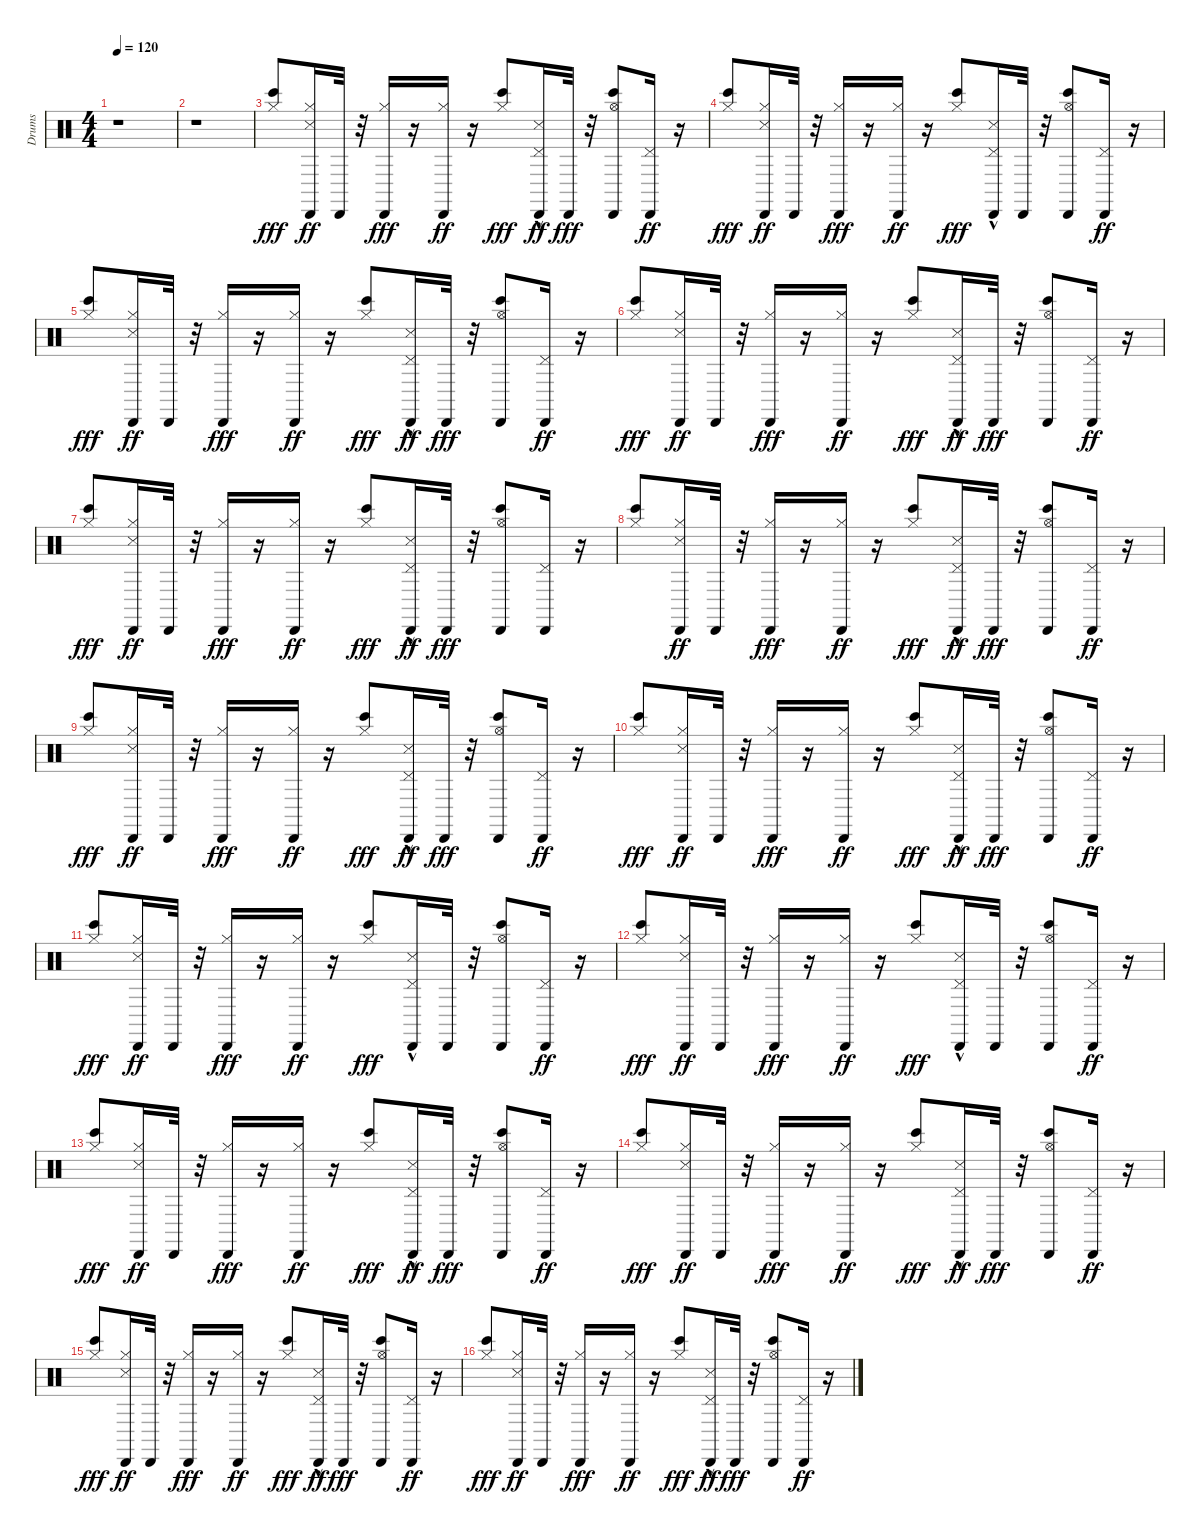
\track ("Drums" "Drums") {instrument percussion}
\staff {score}
\articulation defaults
\ts (4 4)
\tempo 120
\clef neutral
\ks c
r.1{dy fff} |
r.1 |
("Hi-Hat (closed)" "Bongo High (hit)").8 ("Snare (side stick) 3" "Cabasa (hit)" "Hi-Hat (closed)").16{dy ff} "Cabasa (hit)".32 r.32 ("Cabasa (hit)" "Hi-Hat (closed)").16{dy fff} r.16 ("Cabasa (hit)" "Hi-Hat (closed)").16{dy ff} r.16 ("Hi-Hat (closed)" "Bongo High (hit)").8{dy fff} ("Snare (side stick) 3"{hac} "Cabasa (hit)" "Pedal Hi-Hat (hit)").16{dy ff} "Cabasa (hit)".32{dy fff} r.32 ("Cabasa (hit)" "Hi-Hat (open)" "Bongo High (hit)").8 ("Cabasa (hit)" "Pedal Hi-Hat (hit)").16{dy ff} r.16 |
("Hi-Hat (closed)" "Bongo High (hit)").8{dy fff} ("Snare (side stick) 3" "Cabasa (hit)" "Hi-Hat (closed)").16{dy ff} "Cabasa (hit)".32 r.32 ("Cabasa (hit)" "Hi-Hat (closed)").16{dy fff} r.16 ("Cabasa (hit)" "Hi-Hat (closed)").16{dy ff} r.16 ("Hi-Hat (closed)" "Bongo High (hit)").8{dy fff} ("Pedal Hi-Hat (hit)" "Snare (side stick) 3"{hac} "Cabasa (hit)").16 "Cabasa (hit)".32 r.32 ("Cabasa (hit)" "Hi-Hat (open)" "Bongo High (hit)").8 ("Cabasa (hit)" "Pedal Hi-Hat (hit)").16{dy ff} r.16 |
("Hi-Hat (closed)" "Bongo High (hit)").8{dy fff} ("Snare (side stick) 3" "Cabasa (hit)" "Hi-Hat (closed)").16{dy ff} "Cabasa (hit)".32 r.32 ("Cabasa (hit)" "Hi-Hat (closed)").16{dy fff} r.16 ("Cabasa (hit)" "Hi-Hat (closed)").16{dy ff} r.16 ("Hi-Hat (closed)" "Bongo High (hit)").8{dy fff} ("Snare (side stick) 3"{hac} "Cabasa (hit)" "Pedal Hi-Hat (hit)").16{dy ff} "Cabasa (hit)".32{dy fff} r.32 ("Cabasa (hit)" "Hi-Hat (open)" "Bongo High (hit)").8 ("Cabasa (hit)" "Pedal Hi-Hat (hit)").16{dy ff} r.16 |
("Hi-Hat (closed)" "Bongo High (hit)").8{dy fff} ("Snare (side stick) 3" "Cabasa (hit)" "Hi-Hat (closed)").16{dy ff} "Cabasa (hit)".32 r.32 ("Cabasa (hit)" "Hi-Hat (closed)").16{dy fff} r.16 ("Cabasa (hit)" "Hi-Hat (closed)").16{dy ff} r.16 ("Hi-Hat (closed)" "Bongo High (hit)").8{dy fff} ("Snare (side stick) 3"{hac} "Cabasa (hit)" "Pedal Hi-Hat (hit)").16{dy ff} "Cabasa (hit)".32{dy fff} r.32 ("Cabasa (hit)" "Hi-Hat (open)" "Bongo High (hit)").8 ("Cabasa (hit)" "Pedal Hi-Hat (hit)").16{dy ff} r.16 |
("Hi-Hat (closed)" "Bongo High (hit)").8{dy fff} ("Snare (side stick) 3" "Cabasa (hit)" "Hi-Hat (closed)").16{dy ff} "Cabasa (hit)".32 r.32 ("Cabasa (hit)" "Hi-Hat (closed)").16{dy fff} r.16 ("Cabasa (hit)" "Hi-Hat (closed)").16{dy ff} r.16 ("Hi-Hat (closed)" "Bongo High (hit)").8{dy fff} ("Snare (side stick) 3"{hac} "Cabasa (hit)" "Pedal Hi-Hat (hit)").16{dy ff} "Cabasa (hit)".32{dy fff} r.32 ("Cabasa (hit)" "Hi-Hat (open)" "Bongo High (hit)").8 ("Pedal Hi-Hat (hit)" "Cabasa (hit)").16 r.16 |
("Hi-Hat (closed)" "Bongo High (hit)").8 ("Snare (side stick) 3" "Cabasa (hit)" "Hi-Hat (closed)").16{dy ff} "Cabasa (hit)".32 r.32 ("Cabasa (hit)" "Hi-Hat (closed)").16{dy fff} r.16 ("Cabasa (hit)" "Hi-Hat (closed)").16{dy ff} r.16 ("Hi-Hat (closed)" "Bongo High (hit)").8{dy fff} ("Snare (side stick) 3"{hac} "Cabasa (hit)" "Pedal Hi-Hat (hit)").16{dy ff} "Cabasa (hit)".32{dy fff} r.32 ("Cabasa (hit)" "Hi-Hat (open)" "Bongo High (hit)").8 ("Cabasa (hit)" "Pedal Hi-Hat (hit)").16{dy ff} r.16 |
("Hi-Hat (closed)" "Bongo High (hit)").8{dy fff} ("Snare (side stick) 3" "Cabasa (hit)" "Hi-Hat (closed)").16{dy ff} "Cabasa (hit)".32 r.32 ("Hi-Hat (closed)" "Cabasa (hit)").16{dy fff} r.16 ("Cabasa (hit)" "Hi-Hat (closed)").16{dy ff} r.16 ("Hi-Hat (closed)" "Bongo High (hit)").8{dy fff} ("Snare (side stick) 3"{hac} "Cabasa (hit)" "Pedal Hi-Hat (hit)").16{dy ff} "Cabasa (hit)".32{dy fff} r.32 ("Cabasa (hit)" "Hi-Hat (open)" "Bongo High (hit)").8 ("Cabasa (hit)" "Pedal Hi-Hat (hit)").16{dy ff} r.16 |
("Hi-Hat (closed)" "Bongo High (hit)").8{dy fff} ("Snare (side stick) 3" "Cabasa (hit)" "Hi-Hat (closed)").16{dy ff} "Cabasa (hit)".32 r.32 ("Cabasa (hit)" "Hi-Hat (closed)").16{dy fff} r.16 ("Cabasa (hit)" "Hi-Hat (closed)").16{dy ff} r.16 ("Hi-Hat (closed)" "Bongo High (hit)").8{dy fff} ("Snare (side stick) 3"{hac} "Cabasa (hit)" "Pedal Hi-Hat (hit)").16{dy ff} "Cabasa (hit)".32{dy fff} r.32 ("Cabasa (hit)" "Hi-Hat (open)" "Bongo High (hit)").8 ("Cabasa (hit)" "Pedal Hi-Hat (hit)").16{dy ff} r.16 |
("Hi-Hat (closed)" "Bongo High (hit)").8{dy fff} ("Snare (side stick) 3" "Cabasa (hit)" "Hi-Hat (closed)").16{dy ff} "Cabasa (hit)".32 r.32 ("Cabasa (hit)" "Hi-Hat (closed)").16{dy fff} r.16 ("Cabasa (hit)" "Hi-Hat (closed)").16{dy ff} r.16 ("Hi-Hat (closed)" "Bongo High (hit)").8{dy fff} ("Pedal Hi-Hat (hit)" "Snare (side stick) 3"{hac} "Cabasa (hit)").16 "Cabasa (hit)".32 r.32 ("Cabasa (hit)" "Hi-Hat (open)" "Bongo High (hit)").8 ("Cabasa (hit)" "Pedal Hi-Hat (hit)").16{dy ff} r.16 |
("Hi-Hat (closed)" "Bongo High (hit)").8{dy fff} ("Snare (side stick) 3" "Cabasa (hit)" "Hi-Hat (closed)").16{dy ff} "Cabasa (hit)".32 r.32 ("Cabasa (hit)" "Hi-Hat (closed)").16{dy fff} r.16 ("Cabasa (hit)" "Hi-Hat (closed)").16{dy ff} r.16 ("Hi-Hat (closed)" "Bongo High (hit)").8{dy fff} ("Cabasa (hit)" "Pedal Hi-Hat (hit)" "Snare (side stick) 3"{hac}).16 "Cabasa (hit)".32 r.32 ("Cabasa (hit)" "Hi-Hat (open)" "Bongo High (hit)").8 ("Cabasa (hit)" "Pedal Hi-Hat (hit)").16{dy ff} r.16 |
("Hi-Hat (closed)" "Bongo High (hit)").8{dy fff} ("Snare (side stick) 3" "Cabasa (hit)" "Hi-Hat (closed)").16{dy ff} "Cabasa (hit)".32 r.32 ("Cabasa (hit)" "Hi-Hat (closed)").16{dy fff} r.16 ("Cabasa (hit)" "Hi-Hat (closed)").16{dy ff} r.16 ("Hi-Hat (closed)" "Bongo High (hit)").8{dy fff} ("Snare (side stick) 3"{hac} "Cabasa (hit)" "Pedal Hi-Hat (hit)").16{dy ff} "Cabasa (hit)".32{dy fff} r.32 ("Cabasa (hit)" "Hi-Hat (open)" "Bongo High (hit)").8 ("Cabasa (hit)" "Pedal Hi-Hat (hit)").16{dy ff} r.16 |
("Hi-Hat (closed)" "Bongo High (hit)").8{dy fff} ("Snare (side stick) 3" "Cabasa (hit)" "Hi-Hat (closed)").16{dy ff} "Cabasa (hit)".32 r.32 ("Cabasa (hit)" "Hi-Hat (closed)").16{dy fff} r.16 ("Cabasa (hit)" "Hi-Hat (closed)").16{dy ff} r.16 ("Hi-Hat (closed)" "Bongo High (hit)").8{dy fff} ("Snare (side stick) 3"{hac} "Cabasa (hit)" "Pedal Hi-Hat (hit)").16{dy ff} "Cabasa (hit)".32{dy fff} r.32 ("Cabasa (hit)" "Hi-Hat (open)" "Bongo High (hit)").8 ("Cabasa (hit)" "Pedal Hi-Hat (hit)").16{dy ff} r.16 |
("Hi-Hat (closed)" "Bongo High (hit)").8{dy fff} ("Snare (side stick) 3" "Cabasa (hit)" "Hi-Hat (closed)").16{dy ff} "Cabasa (hit)".32 r.32 ("Cabasa (hit)" "Hi-Hat (closed)").16{dy fff} r.16 ("Cabasa (hit)" "Hi-Hat (closed)").16{dy ff} r.16 ("Hi-Hat (closed)" "Bongo High (hit)").8{dy fff} ("Snare (side stick) 3"{hac} "Cabasa (hit)" "Pedal Hi-Hat (hit)").16{dy ff} "Cabasa (hit)".32{dy fff} r.32 ("Cabasa (hit)" "Hi-Hat (open)" "Bongo High (hit)").8 ("Cabasa (hit)" "Pedal Hi-Hat (hit)").16{dy ff} r.16 |
("Hi-Hat (closed)" "Bongo High (hit)").8{dy fff} ("Snare (side stick) 3" "Cabasa (hit)" "Hi-Hat (closed)").16{dy ff} "Cabasa (hit)".32 r.32 ("Cabasa (hit)" "Hi-Hat (closed)").16{dy fff} r.16 ("Cabasa (hit)" "Hi-Hat (closed)").16{dy ff} r.16 ("Hi-Hat (closed)" "Bongo High (hit)").8{dy fff} ("Snare (side stick) 3"{hac} "Cabasa (hit)" "Pedal Hi-Hat (hit)").16{dy ff} "Cabasa (hit)".32{dy fff} r.32 ("Cabasa (hit)" "Hi-Hat (open)" "Bongo High (hit)").8 ("Cabasa (hit)" "Pedal Hi-Hat (hit)").16{dy ff} r.16
